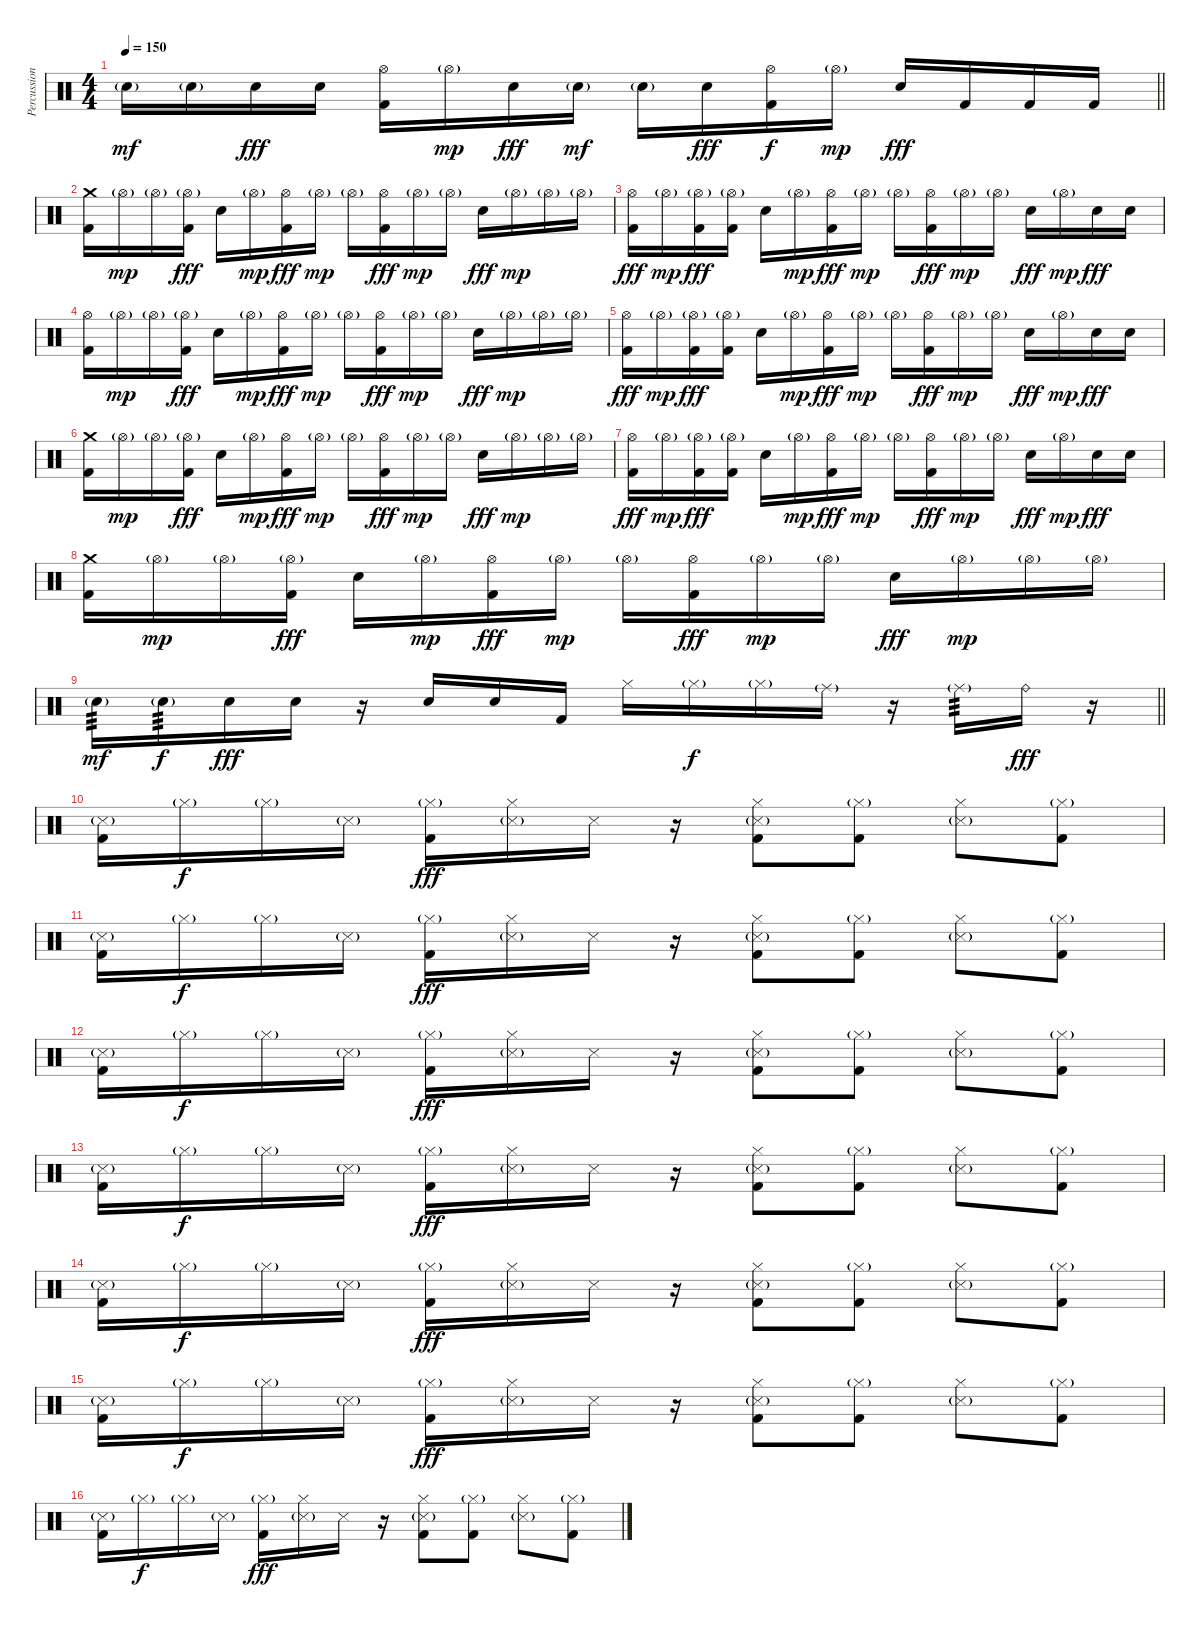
\track ("Percussion" "Percussion") {instrument percussion}
\staff {score}
\articulation defaults
\ts (4 4)
\tempo 150
\clef neutral
\barLineRight lightlight
\ks c "Electric Snare (hit)"{g}.16{dy mf} "Electric Snare (hit)"{g}.16 "Electric Snare (hit)".16{dy fff} "Electric Snare (hit)".16
("Hi-Hat (open)" "Kick (hit) 2").16 "Hi-Hat (open)"{g}.16{dy mp} "Electric Snare (hit)".16{dy fff} "Electric Snare (hit)"{g}.16{dy mf} "Electric Snare (hit)"{g}.16 "Electric Snare (hit)".16{dy fff} ("Hi-Hat (open)" "Kick (hit) 2").16{dy f} "Hi-Hat (open)"{g}.16{dy mp} "Electric Snare (hit)".16{dy fff} "Kick (hit) 2".16 "Kick (hit) 2".16 "Kick (hit) 2".16 |
\section ("" "")
("Crash medium (hit)" "Kick (hit) 2").16 "Hi-Hat (open)"{g}.16{dy mp} "Hi-Hat (open)"{g}.16 ("Hi-Hat (open)"{g} "Kick (hit) 2").16{dy fff} "Electric Snare (hit)".16 "Hi-Hat (open)"{g}.16{dy mp} ("Hi-Hat (open)" "Kick (hit) 2").16{dy fff} "Hi-Hat (open)"{g}.16{dy mp} "Hi-Hat (open)"{g}.16 ("Hi-Hat (open)" "Kick (hit) 2").16{dy fff} "Hi-Hat (open)"{g}.16{dy mp} "Hi-Hat (open)"{g}.16 "Electric Snare (hit)".16{dy fff} "Hi-Hat (open)"{g}.16{dy mp} "Hi-Hat (open)"{g}.16 "Hi-Hat (open)"{g}.16 |
("Hi-Hat (open)" "Kick (hit) 2").16{dy fff} "Hi-Hat (open)"{g}.16{dy mp} ("Hi-Hat (open)"{g} "Kick (hit) 2").16{dy fff} ("Hi-Hat (open)"{g} "Kick (hit) 2").16 "Electric Snare (hit)".16 "Hi-Hat (open)"{g}.16{dy mp} ("Hi-Hat (open)" "Kick (hit) 2").16{dy fff} "Hi-Hat (open)"{g}.16{dy mp} "Hi-Hat (open)"{g}.16 ("Hi-Hat (open)" "Kick (hit) 2").16{dy fff} "Hi-Hat (open)"{g}.16{dy mp} "Hi-Hat (open)"{g}.16 "Electric Snare (hit)".16{dy fff} "Hi-Hat (open)"{g}.16{dy mp} "Electric Snare (hit)".16{dy fff} "Electric Snare (hit)".16 |
("Hi-Hat (open)" "Kick (hit) 2").16 "Hi-Hat (open)"{g}.16{dy mp} "Hi-Hat (open)"{g}.16 ("Hi-Hat (open)"{g} "Kick (hit) 2").16{dy fff} "Electric Snare (hit)".16 "Hi-Hat (open)"{g}.16{dy mp} ("Hi-Hat (open)" "Kick (hit) 2").16{dy fff} "Hi-Hat (open)"{g}.16{dy mp} "Hi-Hat (open)"{g}.16 ("Hi-Hat (open)" "Kick (hit) 2").16{dy fff} "Hi-Hat (open)"{g}.16{dy mp} "Hi-Hat (open)"{g}.16 "Electric Snare (hit)".16{dy fff} "Hi-Hat (open)"{g}.16{dy mp} "Hi-Hat (open)"{g}.16 "Hi-Hat (open)"{g}.16 |
("Hi-Hat (open)" "Kick (hit) 2").16{dy fff} "Hi-Hat (open)"{g}.16{dy mp} ("Hi-Hat (open)"{g} "Kick (hit) 2").16{dy fff} ("Hi-Hat (open)"{g} "Kick (hit) 2").16 "Electric Snare (hit)".16 "Hi-Hat (open)"{g}.16{dy mp} ("Hi-Hat (open)" "Kick (hit) 2").16{dy fff} "Hi-Hat (open)"{g}.16{dy mp} "Hi-Hat (open)"{g}.16 ("Hi-Hat (open)" "Kick (hit) 2").16{dy fff} "Hi-Hat (open)"{g}.16{dy mp} "Hi-Hat (open)"{g}.16 "Electric Snare (hit)".16{dy fff} "Hi-Hat (open)"{g}.16{dy mp} "Electric Snare (hit)".16{dy fff} "Electric Snare (hit)".16 |
("Crash medium (hit)" "Kick (hit) 2").16 "Hi-Hat (open)"{g}.16{dy mp} "Hi-Hat (open)"{g}.16 ("Hi-Hat (open)"{g} "Kick (hit) 2").16{dy fff} "Electric Snare (hit)".16 "Hi-Hat (open)"{g}.16{dy mp} ("Hi-Hat (open)" "Kick (hit) 2").16{dy fff} "Hi-Hat (open)"{g}.16{dy mp} "Hi-Hat (open)"{g}.16 ("Hi-Hat (open)" "Kick (hit) 2").16{dy fff} "Hi-Hat (open)"{g}.16{dy mp} "Hi-Hat (open)"{g}.16 "Electric Snare (hit)".16{dy fff} "Hi-Hat (open)"{g}.16{dy mp} "Hi-Hat (open)"{g}.16 "Hi-Hat (open)"{g}.16 |
("Hi-Hat (open)" "Kick (hit) 2").16{dy fff} "Hi-Hat (open)"{g}.16{dy mp} ("Hi-Hat (open)"{g} "Kick (hit) 2").16{dy fff} ("Hi-Hat (open)"{g} "Kick (hit) 2").16 "Electric Snare (hit)".16 "Hi-Hat (open)"{g}.16{dy mp} ("Hi-Hat (open)" "Kick (hit) 2").16{dy fff} "Hi-Hat (open)"{g}.16{dy mp} "Hi-Hat (open)"{g}.16 ("Hi-Hat (open)" "Kick (hit) 2").16{dy fff} "Hi-Hat (open)"{g}.16{dy mp} "Hi-Hat (open)"{g}.16 "Electric Snare (hit)".16{dy fff} "Hi-Hat (open)"{g}.16{dy mp} "Electric Snare (hit)".16{dy fff} "Electric Snare (hit)".16 |
("Crash medium (hit)" "Kick (hit) 2").16 "Hi-Hat (open)"{g}.16{dy mp} "Hi-Hat (open)"{g}.16 ("Hi-Hat (open)"{g} "Kick (hit) 2").16{dy fff} "Electric Snare (hit)".16 "Hi-Hat (open)"{g}.16{dy mp} ("Hi-Hat (open)" "Kick (hit) 2").16{dy fff} "Hi-Hat (open)"{g}.16{dy mp} "Hi-Hat (open)"{g}.16 ("Hi-Hat (open)" "Kick (hit) 2").16{dy fff} "Hi-Hat (open)"{g}.16{dy mp} "Hi-Hat (open)"{g}.16 "Electric Snare (hit)".16{dy fff} "Hi-Hat (open)"{g}.16{dy mp} "Hi-Hat (open)"{g}.16 "Hi-Hat (open)"{g}.16 |
\barLineRight lightlight "Electric Snare (hit)"{g}.16{tp 3 dy mf} "Electric Snare (hit)"{g}.16{tp 3 dy f} "Electric Snare (hit)".16{dy fff} "Electric Snare (hit)".16
r.16 "Electric Snare (hit)".16 "Electric Snare (hit)".16 "Kick (hit) 2".16 "Hi-Hat (closed)".16 "Hi-Hat (closed)"{g}.16{dy f} "Hi-Hat (closed)"{g}.16 "Ride (middle)"{g}.16 r.16 "Ride (middle)"{g}.16{tp 3} "Ride (bell)".16{dy fff} r.16 |
\section ("" "")
("Snare (side stick) 3"{g} "Kick (hit) 2").16 "Hi-Hat (closed)"{g}.16{dy f} "Hi-Hat (closed)"{g}.16 "Snare (side stick) 3"{g}.16 ("Hi-Hat (closed)"{g} "Kick (hit) 2").16{dy fff} ("Hi-Hat (closed)" "Snare (side stick) 3"{g}).16 "Snare (side stick) 3".16 r.16 ("Hi-Hat (closed)" "Snare (side stick) 3"{g} "Kick (hit) 2").8 ("Hi-Hat (closed)"{g} "Kick (hit) 2").8 ("Hi-Hat (closed)" "Snare (side stick) 3"{g}).8 ("Hi-Hat (closed)"{g} "Kick (hit) 2").8 |
("Snare (side stick) 3"{g} "Kick (hit) 2").16 "Hi-Hat (closed)"{g}.16{dy f} "Hi-Hat (closed)"{g}.16 "Snare (side stick) 3"{g}.16 ("Hi-Hat (closed)"{g} "Kick (hit) 2").16{dy fff} ("Hi-Hat (closed)" "Snare (side stick) 3"{g}).16 "Snare (side stick) 3".16 r.16 ("Hi-Hat (closed)" "Snare (side stick) 3"{g} "Kick (hit) 2").8 ("Hi-Hat (closed)"{g} "Kick (hit) 2").8 ("Hi-Hat (closed)" "Snare (side stick) 3"{g}).8 ("Hi-Hat (closed)"{g} "Kick (hit) 2").8 |
("Snare (side stick) 3"{g} "Kick (hit) 2").16 "Hi-Hat (closed)"{g}.16{dy f} "Hi-Hat (closed)"{g}.16 "Snare (side stick) 3"{g}.16 ("Hi-Hat (closed)"{g} "Kick (hit) 2").16{dy fff} ("Hi-Hat (closed)" "Snare (side stick) 3"{g}).16 "Snare (side stick) 3".16 r.16 ("Hi-Hat (closed)" "Snare (side stick) 3"{g} "Kick (hit) 2").8 ("Hi-Hat (closed)"{g} "Kick (hit) 2").8 ("Hi-Hat (closed)" "Snare (side stick) 3"{g}).8 ("Hi-Hat (closed)"{g} "Kick (hit) 2").8 |
("Snare (side stick) 3"{g} "Kick (hit) 2").16 "Hi-Hat (closed)"{g}.16{dy f} "Hi-Hat (closed)"{g}.16 "Snare (side stick) 3"{g}.16 ("Hi-Hat (closed)"{g} "Kick (hit) 2").16{dy fff} ("Hi-Hat (closed)" "Snare (side stick) 3"{g}).16 "Snare (side stick) 3".16 r.16 ("Hi-Hat (closed)" "Snare (side stick) 3"{g} "Kick (hit) 2").8 ("Hi-Hat (closed)"{g} "Kick (hit) 2").8 ("Hi-Hat (closed)" "Snare (side stick) 3"{g}).8 ("Hi-Hat (closed)"{g} "Kick (hit) 2").8 |
("Snare (side stick) 3"{g} "Kick (hit) 2").16 "Hi-Hat (closed)"{g}.16{dy f} "Hi-Hat (closed)"{g}.16 "Snare (side stick) 3"{g}.16 ("Hi-Hat (closed)"{g} "Kick (hit) 2").16{dy fff} ("Hi-Hat (closed)" "Snare (side stick) 3"{g}).16 "Snare (side stick) 3".16 r.16 ("Hi-Hat (closed)" "Snare (side stick) 3"{g} "Kick (hit) 2").8 ("Hi-Hat (closed)"{g} "Kick (hit) 2").8 ("Hi-Hat (closed)" "Snare (side stick) 3"{g}).8 ("Hi-Hat (closed)"{g} "Kick (hit) 2").8 |
("Snare (side stick) 3"{g} "Kick (hit) 2").16 "Hi-Hat (closed)"{g}.16{dy f} "Hi-Hat (closed)"{g}.16 "Snare (side stick) 3"{g}.16 ("Hi-Hat (closed)"{g} "Kick (hit) 2").16{dy fff} ("Hi-Hat (closed)" "Snare (side stick) 3"{g}).16 "Snare (side stick) 3".16 r.16 ("Hi-Hat (closed)" "Snare (side stick) 3"{g} "Kick (hit) 2").8 ("Hi-Hat (closed)"{g} "Kick (hit) 2").8 ("Hi-Hat (closed)" "Snare (side stick) 3"{g}).8 ("Hi-Hat (closed)"{g} "Kick (hit) 2").8 |
("Snare (side stick) 3"{g} "Kick (hit) 2").16 "Hi-Hat (closed)"{g}.16{dy f} "Hi-Hat (closed)"{g}.16 "Snare (side stick) 3"{g}.16 ("Hi-Hat (closed)"{g} "Kick (hit) 2").16{dy fff} ("Hi-Hat (closed)" "Snare (side stick) 3"{g}).16 "Snare (side stick) 3".16 r.16 ("Hi-Hat (closed)" "Snare (side stick) 3"{g} "Kick (hit) 2").8 ("Hi-Hat (closed)"{g} "Kick (hit) 2").8 ("Hi-Hat (closed)" "Snare (side stick) 3"{g}).8 ("Hi-Hat (closed)"{g} "Kick (hit) 2").8
